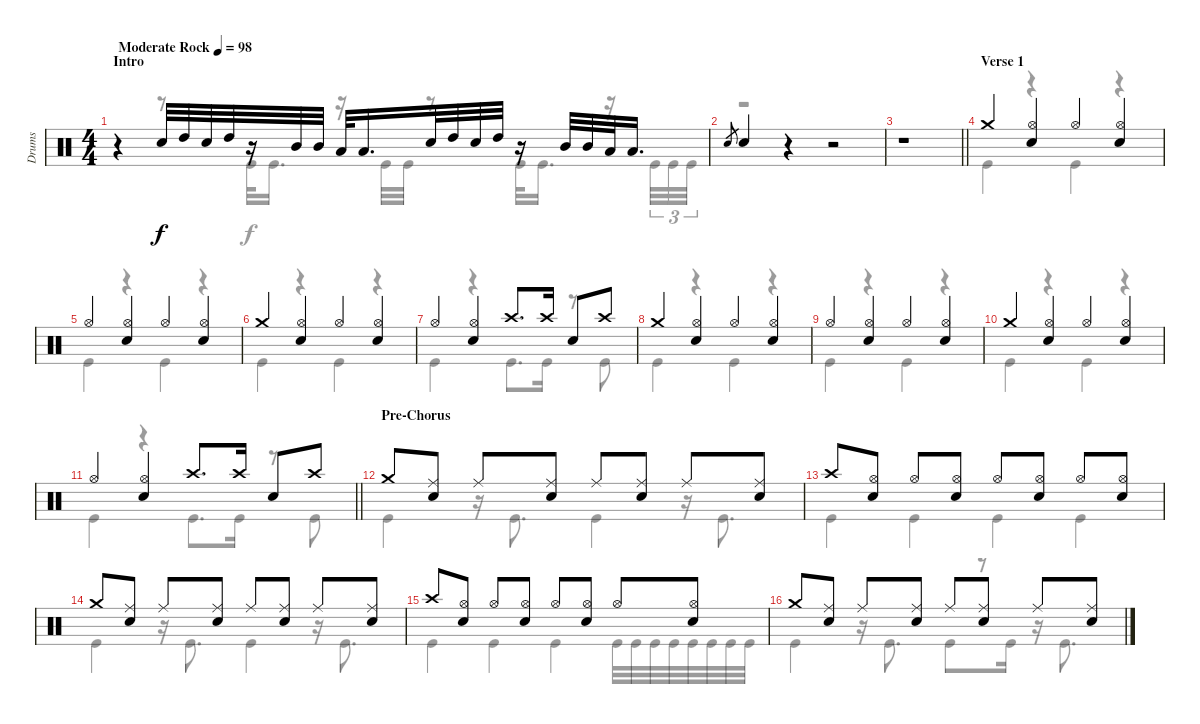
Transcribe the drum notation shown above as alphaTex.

\track ("Drums" "Drums") {instrument percussion}
\staff {score}
\articulation defaults
\voice
\ts (4 4)
\section ("" "Intro")
\tempo (98 "Moderate Rock")
\clef neutral
\ks c
r.4{dy f} "Electric Snare (hit)".32 "High Tom (hit)".32 "Electric Snare (hit)".32 "High Tom (hit)".32 r.16 "Mid Tom (hit)".32 "Mid Tom (hit)".32 "Low Tom (hit)".32 "Low Tom (hit)".16{d} "Electric Snare (hit)".32 "High Tom (hit)".32 "Electric Snare (hit)".32 "High Tom (hit)".32 r.16 "Mid Tom (hit)".32 "Mid Tom (hit)".32 "Low Tom (hit)".32 "Low Tom (hit)".16{d} |
"Electric Snare (hit)".8{gr} "Electric Snare (hit)".4 r.4 r.2 |
\barLineRight lightlight
r.1 |
\section ("" "Verse 1")
"Crash medium (hit)".4 ("Hi-Hat (open)" "Electric Snare (hit)").4 "Hi-Hat (open)".4 ("Hi-Hat (open)" "Electric Snare (hit)").4 |
"Hi-Hat (open)".4 ("Hi-Hat (open)" "Electric Snare (hit)").4 "Hi-Hat (open)".4 ("Hi-Hat (open)" "Electric Snare (hit)").4 |
"Crash medium (hit)".4 ("Hi-Hat (open)" "Electric Snare (hit)").4 "Hi-Hat (open)".4 ("Hi-Hat (open)" "Electric Snare (hit)").4 |
"Hi-Hat (open)".4 ("Hi-Hat (open)" "Electric Snare (hit)").4 "Crash high (hit)".8{d} "Crash high (hit)".16 "Electric Snare (hit)".8 "Crash high (hit)".8 |
"Crash medium (hit)".4 ("Hi-Hat (open)" "Electric Snare (hit)").4 "Hi-Hat (open)".4 ("Hi-Hat (open)" "Electric Snare (hit)").4 |
"Hi-Hat (open)".4 ("Hi-Hat (open)" "Electric Snare (hit)").4 "Hi-Hat (open)".4 ("Hi-Hat (open)" "Electric Snare (hit)").4 |
"Crash medium (hit)".4 ("Hi-Hat (open)" "Electric Snare (hit)").4 "Hi-Hat (open)".4 ("Hi-Hat (open)" "Electric Snare (hit)").4 |
\barLineRight lightlight "Hi-Hat (open)".4
("Hi-Hat (open)" "Electric Snare (hit)").4 "Crash high (hit)".8{d} "Crash high (hit)".16 "Electric Snare (hit)".8 "Crash high (hit)".8 |
\section ("" "Pre-Chorus")
"Crash medium (hit)".8 ("Ride (middle)" "Electric Snare (hit)").8 "Ride (middle)".8 ("Ride (middle)" "Electric Snare (hit)").8 "Ride (middle)".8 ("Ride (middle)" "Electric Snare (hit)").8 "Ride (middle)".8 ("Ride (middle)" "Electric Snare (hit)").8 |
"Crash high (hit)".8 ("Hi-Hat (open)" "Electric Snare (hit)").8 "Hi-Hat (open)".8 ("Hi-Hat (open)" "Electric Snare (hit)").8 "Hi-Hat (open)".8 ("Hi-Hat (open)" "Electric Snare (hit)").8 "Hi-Hat (open)".8 ("Hi-Hat (open)" "Electric Snare (hit)").8 |
"Crash medium (hit)".8 ("Ride (middle)" "Electric Snare (hit)").8 "Ride (middle)".8 ("Ride (middle)" "Electric Snare (hit)").8 "Ride (middle)".8 ("Ride (middle)" "Electric Snare (hit)").8 "Ride (middle)".8 ("Ride (middle)" "Electric Snare (hit)").8 |
"Crash high (hit)".8 ("Hi-Hat (open)" "Electric Snare (hit)").8 "Hi-Hat (open)".8 ("Hi-Hat (open)" "Electric Snare (hit)").8 "Hi-Hat (open)".8 ("Hi-Hat (open)" "Electric Snare (hit)").8 "Hi-Hat (open)".8 ("Hi-Hat (open)" "Electric Snare (hit)").8 |
"Crash medium (hit)".8 ("Ride (middle)" "Electric Snare (hit)").8 "Ride (middle)".8 ("Ride (middle)" "Electric Snare (hit)").8 "Ride (middle)".8 ("Ride (middle)" "Electric Snare (hit)").8 "Ride (middle)".8 ("Ride (middle)" "Electric Snare (hit)").8
\voice
\clef neutral
\ottava regular
\simile none
\ks c
r.4{dy f} r.8 "Kick (hit)".32 "Kick (hit)".16{d} r.16 "Kick (hit)".32 "Kick (hit)".32 r.8 "Kick (hit)".32 "Kick (hit)".16{d} r.16 "Kick (hit)".32{tu (3 2)} "Kick (hit)".32{tu (3 2)} "Kick (hit)".32{tu (3 2)} |
r.1 |
\barLineRight lightlight
r.1 |
"Kick (hit)".4 r.4 "Kick (hit)".4 r.4 |
"Kick (hit)".4 r.4 "Kick (hit)".4 r.4 |
"Kick (hit)".4 r.4 "Kick (hit)".4 r.4 |
"Kick (hit)".4 r.4 "Kick (hit)".8{d} "Kick (hit)".16 r.8 "Kick (hit)".8 |
"Kick (hit)".4 r.4 "Kick (hit)".4 r.4 |
"Kick (hit)".4 r.4 "Kick (hit)".4 r.4 |
"Kick (hit)".4 r.4 "Kick (hit)".4 r.4 |
\barLineRight lightlight "Kick (hit)".4
r.4 "Kick (hit)".8{d} "Kick (hit)".16 r.8 "Kick (hit)".8 |
"Kick (hit)".4 r.16 "Kick (hit)".8{d} "Kick (hit)".4 r.16 "Kick (hit)".8{d} |
"Kick (hit)".4 "Kick (hit)".4 "Kick (hit)".4 "Kick (hit)".4 |
"Kick (hit)".4 r.16 "Kick (hit)".8{d} "Kick (hit)".4 r.16 "Kick (hit)".8{d} |
"Kick (hit)".4 "Kick (hit)".4 "Kick (hit)".4 "Kick (hit)".32 "Kick (hit)".32 "Kick (hit)".32 "Kick (hit)".32 "Kick (hit)".32 "Kick (hit)".32 "Kick (hit)".32 "Kick (hit)".32 |
"Kick (hit)".4 r.16 "Kick (hit)".8{d} "Kick (hit)".8 r.16 "Kick (hit)".16 r.16 "Kick (hit)".8{d}
